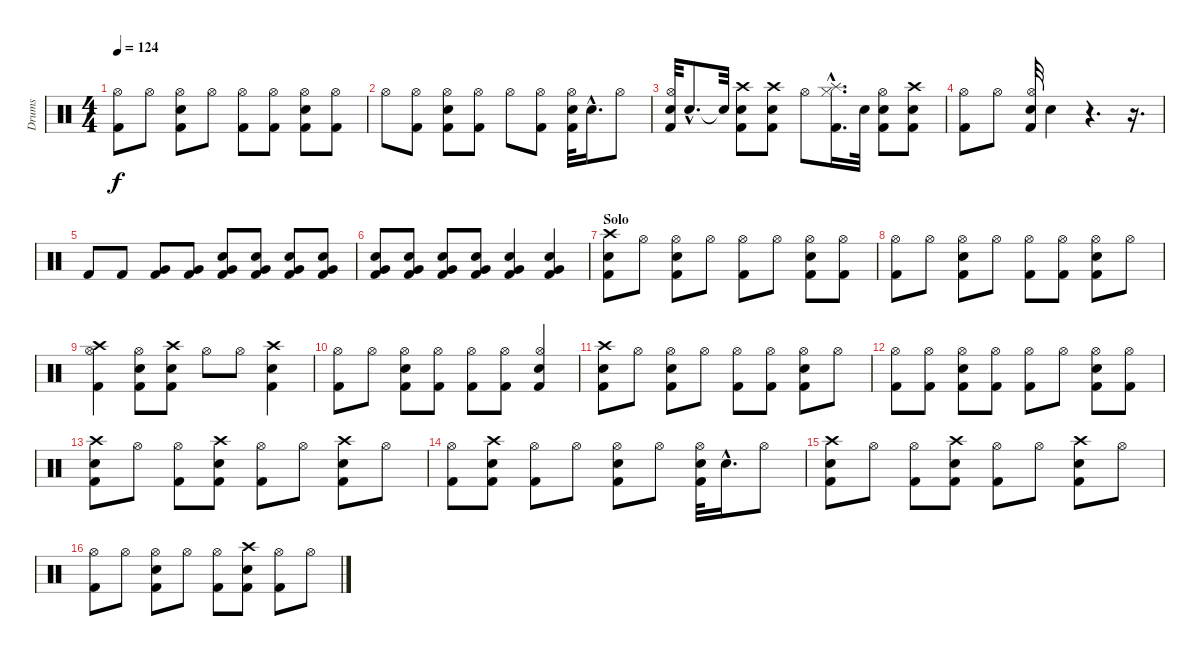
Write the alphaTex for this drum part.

\track ("Drums" "Drums") {instrument percussion}
\staff {score}
\articulation defaults
\ts (4 4)
\tempo 124
\clef neutral
\ks c
("Kick (hit) 2" "Hi-Hat (open)").8{dy f} "Hi-Hat (open)".8 ("Snare (hit) 2" "Kick (hit) 2" "Hi-Hat (open)").8 "Hi-Hat (open)".8 ("Hi-Hat (open)" "Kick (hit) 2").8 ("Hi-Hat (open)" "Kick (hit) 2").8 ("Kick (hit) 2" "Snare (hit) 2" "Hi-Hat (open)").8 ("Kick (hit) 2" "Hi-Hat (open)").8 |
"Hi-Hat (open)".8 ("Kick (hit) 2" "Hi-Hat (open)").8 ("Kick (hit) 2" "Snare (hit) 2" "Hi-Hat (open)").8 ("Kick (hit) 2" "Hi-Hat (open)").8 "Hi-Hat (open)".8 ("Kick (hit) 2" "Hi-Hat (open)").8 ("Hi-Hat (open)" "Kick (hit) 2" "Snare (hit) 2").32 "Snare (hit) 2"{hac}.16{d} "Hi-Hat (open)".8 |
("Hi-Hat (open)" "Kick (hit) 2" "Snare (hit) 2").32 "Snare (hit) 2"{hac}.8{d} "Snare (hit)"{t}.32 ("Snare (hit) 2" "Kick (hit) 2" "Crash high (hit)").8 ("Crash high (hit)" "Snare (hit) 2" "Kick (hit) 2").8 "Hi-Hat (open)".8 ("Hi-Hat (closed)" "Splash (hit)" "Kick (hit) 2"{hac}).16{d} "Snare (hit) 2".32 ("Kick (hit) 2" "Hi-Hat (open)" "Snare (hit) 2").8 ("Crash high (hit)" "Snare (hit) 2" "Kick (hit) 2").8 |
("Kick (hit) 2" "Hi-Hat (open)").8 "Hi-Hat (open)".8 ("Kick (hit) 2" "Hi-Hat (open)" "Snare (hit) 2").32 "Snare (hit) 2".4 r.4{d} r.16{d} |
"Kick (hit) 2".8 "Kick (hit) 2".8 ("Very Low Tom (hit)" "Kick (hit) 2").8 ("Kick (hit) 2" "Very Low Tom (hit)").8 ("Very Low Tom (hit)" "Snare (hit) 2" "Kick (hit) 2").8 ("Kick (hit) 2" "Snare (hit) 2" "Very Low Tom (hit)").8 ("Snare (hit) 2" "Very Low Tom (hit)" "Kick (hit) 2").8 ("Kick (hit) 2" "Very Low Tom (hit)" "Snare (hit) 2").8 |
("Very Low Tom (hit)" "Snare (hit) 2" "Kick (hit) 2").8 ("Very Low Tom (hit)" "Snare (hit) 2" "Kick (hit) 2").8 ("Very Low Tom (hit)" "Snare (hit) 2" "Kick (hit) 2").8 ("Very Low Tom (hit)" "Kick (hit) 2" "Snare (hit) 2").8 ("Very Low Tom (hit)" "Snare (hit) 2" "Kick (hit) 2").4 ("Kick (hit) 2" "Snare (hit) 2" "Very Low Tom (hit)").4 |
\section ("" "Solo")
("Snare (hit) 2" "Crash high (hit)" "Kick (hit) 2").8 "Hi-Hat (open)".8 ("Hi-Hat (open)" "Snare (hit) 2" "Kick (hit) 2").8 "Hi-Hat (open)".8 ("Kick (hit) 2" "Hi-Hat (open)").8 "Hi-Hat (open)".8 ("Snare (hit) 2" "Kick (hit) 2" "Hi-Hat (open)").8 ("Kick (hit) 2" "Hi-Hat (open)").8 |
("Hi-Hat (open)" "Kick (hit) 2").8 "Hi-Hat (open)".8 ("Snare (hit) 2" "Hi-Hat (open)" "Kick (hit) 2").8 "Hi-Hat (open)".8 ("Hi-Hat (open)" "Kick (hit) 2").8 ("Hi-Hat (open)" "Kick (hit) 2").8 ("Snare (hit) 2" "Kick (hit) 2" "Hi-Hat (open)").8 "Hi-Hat (open)".8 |
("Kick (hit) 2" "Hi-Hat (open)" "Crash high (hit)").4 ("Kick (hit) 2" "Hi-Hat (open)" "Snare (hit) 2").8 ("Crash high (hit)" "Kick (hit) 2" "Snare (hit) 2").8 "Hi-Hat (open)".8 "Hi-Hat (open)".8 ("Snare (hit) 2" "Kick (hit) 2" "Crash high (hit)").4 |
("Kick (hit) 2" "Hi-Hat (open)").8 "Hi-Hat (open)".8 ("Snare (hit) 2" "Hi-Hat (open)" "Kick (hit) 2").8 ("Kick (hit) 2" "Hi-Hat (open)").8 ("Hi-Hat (open)" "Kick (hit) 2").8 ("Hi-Hat (open)" "Kick (hit) 2").8 ("Snare (hit) 2" "Hi-Hat (open)" "Kick (hit) 2").4 |
("Snare (hit) 2" "Kick (hit) 2" "Crash high (hit)").8 "Hi-Hat (open)".8 ("Snare (hit) 2" "Hi-Hat (open)" "Kick (hit) 2").8 "Hi-Hat (open)".8 ("Hi-Hat (open)" "Kick (hit) 2").8 ("Kick (hit) 2" "Hi-Hat (open)").8 ("Snare (hit) 2" "Kick (hit) 2" "Hi-Hat (open)").8 "Hi-Hat (open)".8 |
("Kick (hit) 2" "Hi-Hat (open)").8 ("Hi-Hat (open)" "Kick (hit) 2").8 ("Snare (hit) 2" "Hi-Hat (open)" "Kick (hit) 2").8 ("Hi-Hat (open)" "Kick (hit) 2").8 ("Kick (hit) 2" "Hi-Hat (open)").8 "Hi-Hat (open)".8 ("Snare (hit) 2" "Kick (hit) 2" "Hi-Hat (open)").8 ("Hi-Hat (open)" "Kick (hit) 2").8 |
("Snare (hit) 2" "Crash high (hit)" "Kick (hit) 2").8 "Hi-Hat (open)".8 ("Kick (hit) 2" "Hi-Hat (open)").8 ("Kick (hit) 2" "Crash high (hit)" "Snare (hit) 2").8 ("Hi-Hat (open)" "Kick (hit) 2").8 "Hi-Hat (open)".8 ("Snare (hit) 2" "Crash high (hit)" "Kick (hit) 2").8 "Hi-Hat (open)".8 |
("Kick (hit) 2" "Hi-Hat (open)").8 ("Crash high (hit)" "Snare (hit) 2" "Kick (hit) 2").8 ("Kick (hit) 2" "Hi-Hat (open)").8 "Hi-Hat (open)".8 ("Hi-Hat (open)" "Kick (hit) 2" "Snare (hit) 2").8 "Hi-Hat (open)".8 ("Snare (hit) 2" "Kick (hit) 2" "Hi-Hat (open)").32 "Snare (hit) 2"{hac}.16{d} "Hi-Hat (open)".8 |
("Kick (hit) 2" "Crash high (hit)" "Snare (hit) 2").8 "Hi-Hat (open)".8 ("Hi-Hat (open)" "Kick (hit) 2").8 ("Snare (hit) 2" "Kick (hit) 2" "Crash high (hit)").8 ("Kick (hit) 2" "Hi-Hat (open)").8 "Hi-Hat (open)".8 ("Snare (hit) 2" "Crash high (hit)" "Kick (hit) 2").8 "Hi-Hat (open)".8 |
("Kick (hit) 2" "Hi-Hat (open)").8 "Hi-Hat (open)".8 ("Snare (hit) 2" "Hi-Hat (open)" "Kick (hit) 2").8 "Hi-Hat (open)".8 ("Kick (hit) 2" "Hi-Hat (open)").8 ("Snare (hit) 2" "Kick (hit) 2" "Crash high (hit)").8 ("Hi-Hat (open)" "Kick (hit) 2").8 "Hi-Hat (open)".8
